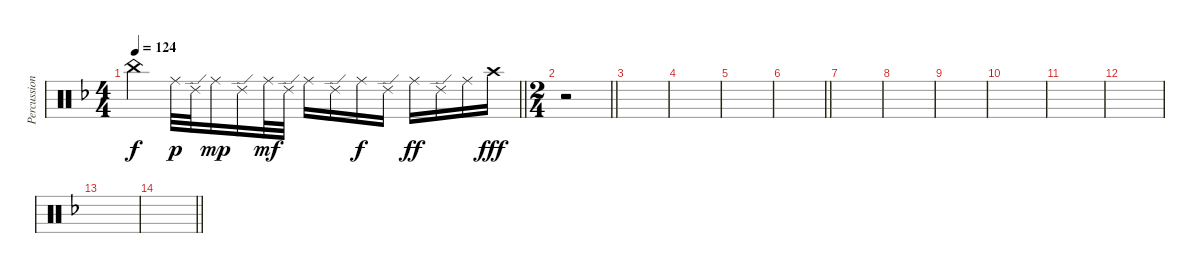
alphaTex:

\track ("Percussions" "Percussion") {instrument percussion}
\staff {score}
\articulation defaults
\ts (4 4)
\tempo 124
\clef neutral
\barLineRight lightlight
\ks dminor "China (hit)".4{dy f} "Ride (middle)".32{dy p} "Ride (edge) 2".32 "Ride (middle)".16{dy mp} "Ride (edge) 2".16 "Ride (middle)".32{dy mf} "Ride (edge) 2".32 "Ride (middle)".16 "Ride (edge) 2".16 "Ride (middle)".16{dy f} "Ride (edge) 2".16 "Ride (middle)".16{dy ff} "Ride (edge) 2".16 "Ride (middle)".16 "Crash high (hit)".16{dy fff}
|
\ts (2 4)
\barLineRight lightlight
r.2 |
|
|
|
\barLineRight lightlight
|
|
|
|
|
|
|
|
\barLineRight lightlight
